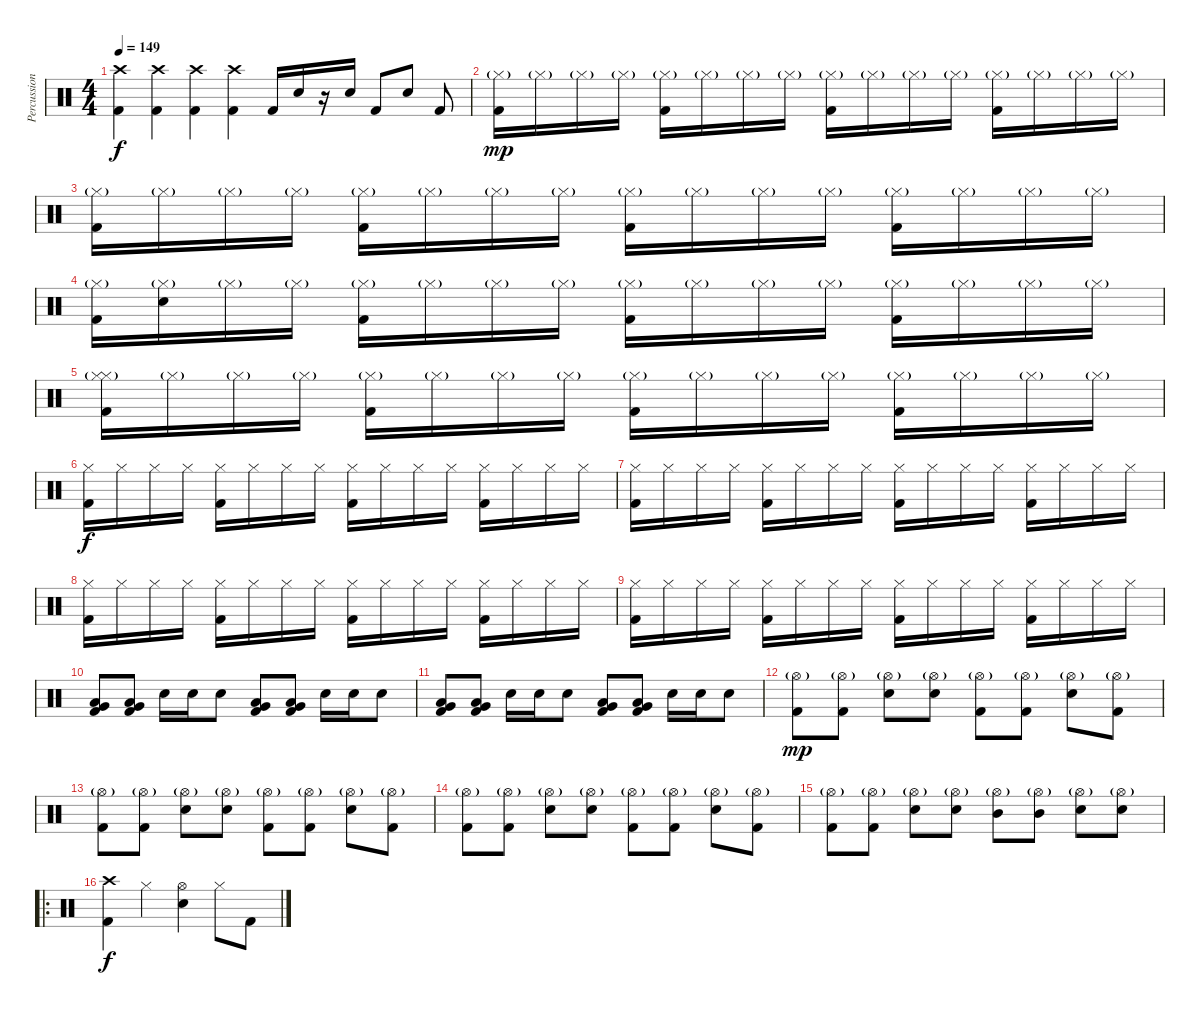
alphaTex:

\track ("Percussion" "Percussion") {instrument percussion}
\staff {score}
\articulation defaults
\ts (4 4)
\tempo 149
\clef neutral
\ks c
("Kick (hit) 2" "Crash high (hit)").4{dy f} ("Kick (hit) 2" "Crash high (hit)").4 ("Kick (hit) 2" "Crash high (hit)").4 ("Kick (hit) 2" "Crash high (hit)").4 "Kick (hit) 2".16 "Electric Snare (hit)".16 r.16 "Electric Snare (hit)".16 "Kick (hit) 2".8 "Electric Snare (hit)".8 "Kick (hit) 2".8 |
("Hi-Hat (closed)"{g} "Kick (hit) 2").16{dy mp} "Hi-Hat (closed)"{g}.16 "Hi-Hat (closed)"{g}.16 "Hi-Hat (closed)"{g}.16 ("Hi-Hat (closed)"{g} "Kick (hit) 2").16 "Hi-Hat (closed)"{g}.16 "Hi-Hat (closed)"{g}.16 "Hi-Hat (closed)"{g}.16 ("Hi-Hat (closed)"{g} "Kick (hit) 2").16 "Hi-Hat (closed)"{g}.16 "Hi-Hat (closed)"{g}.16 "Hi-Hat (closed)"{g}.16 ("Hi-Hat (closed)"{g} "Kick (hit) 2").16 "Hi-Hat (closed)"{g}.16 "Hi-Hat (closed)"{g}.16 "Hi-Hat (closed)"{g}.16 |
("Hi-Hat (closed)"{g} "Kick (hit) 2").16 "Hi-Hat (closed)"{g}.16 "Hi-Hat (closed)"{g}.16 "Hi-Hat (closed)"{g}.16 ("Hi-Hat (closed)"{g} "Kick (hit) 2").16 "Hi-Hat (closed)"{g}.16 "Hi-Hat (closed)"{g}.16 "Hi-Hat (closed)"{g}.16 ("Hi-Hat (closed)"{g} "Kick (hit) 2").16 "Hi-Hat (closed)"{g}.16 "Hi-Hat (closed)"{g}.16 "Hi-Hat (closed)"{g}.16 ("Hi-Hat (closed)"{g} "Kick (hit) 2").16 "Hi-Hat (closed)"{g}.16 "Hi-Hat (closed)"{g}.16 "Hi-Hat (closed)"{g}.16 |
("Hi-Hat (closed)"{g} "Kick (hit) 2").16 ("Hi-Hat (closed)"{g} "Snare (hit)").16 "Hi-Hat (closed)"{g}.16 "Hi-Hat (closed)"{g}.16 ("Hi-Hat (closed)"{g} "Kick (hit) 2").16 "Hi-Hat (closed)"{g}.16 "Hi-Hat (closed)"{g}.16 "Hi-Hat (closed)"{g}.16 ("Hi-Hat (closed)"{g} "Kick (hit) 2").16 "Hi-Hat (closed)"{g}.16 "Hi-Hat (closed)"{g}.16 "Hi-Hat (closed)"{g}.16 ("Hi-Hat (closed)"{g} "Kick (hit) 2").16 "Hi-Hat (closed)"{g}.16 "Hi-Hat (closed)"{g}.16 "Hi-Hat (closed)"{g}.16 |
("Hi-Hat (closed)" "Hi-Hat (closed)"{g} "Kick (hit) 2").16 "Hi-Hat (closed)"{g}.16 "Hi-Hat (closed)"{g}.16 "Hi-Hat (closed)"{g}.16 ("Hi-Hat (closed)"{g} "Kick (hit) 2").16 "Hi-Hat (closed)"{g}.16 "Hi-Hat (closed)"{g}.16 "Hi-Hat (closed)"{g}.16 ("Hi-Hat (closed)"{g} "Kick (hit) 2").16 "Hi-Hat (closed)"{g}.16 "Hi-Hat (closed)"{g}.16 "Hi-Hat (closed)"{g}.16 ("Hi-Hat (closed)"{g} "Kick (hit) 2").16 "Hi-Hat (closed)"{g}.16 "Hi-Hat (closed)"{g}.16 "Hi-Hat (closed)"{g}.16 |
("Hi-Hat (closed)" "Kick (hit) 2").16{dy f} "Hi-Hat (closed)".16 "Hi-Hat (closed)".16 "Hi-Hat (closed)".16 ("Hi-Hat (closed)" "Kick (hit) 2").16 "Hi-Hat (closed)".16 "Hi-Hat (closed)".16 "Hi-Hat (closed)".16 ("Hi-Hat (closed)" "Kick (hit) 2").16 "Hi-Hat (closed)".16 "Hi-Hat (closed)".16 "Hi-Hat (closed)".16 ("Hi-Hat (closed)" "Kick (hit) 2").16 "Hi-Hat (closed)".16 "Hi-Hat (closed)".16 "Hi-Hat (closed)".16 |
("Hi-Hat (closed)" "Kick (hit) 2").16 "Hi-Hat (closed)".16 "Hi-Hat (closed)".16 "Hi-Hat (closed)".16 ("Hi-Hat (closed)" "Kick (hit) 2").16 "Hi-Hat (closed)".16 "Hi-Hat (closed)".16 "Hi-Hat (closed)".16 ("Hi-Hat (closed)" "Kick (hit) 2").16 "Hi-Hat (closed)".16 "Hi-Hat (closed)".16 "Hi-Hat (closed)".16 ("Hi-Hat (closed)" "Kick (hit) 2").16 "Hi-Hat (closed)".16 "Hi-Hat (closed)".16 "Hi-Hat (closed)".16 |
("Hi-Hat (closed)" "Kick (hit) 2").16 "Hi-Hat (closed)".16 "Hi-Hat (closed)".16 "Hi-Hat (closed)".16 ("Hi-Hat (closed)" "Kick (hit) 2").16 "Hi-Hat (closed)".16 "Hi-Hat (closed)".16 "Hi-Hat (closed)".16 ("Hi-Hat (closed)" "Kick (hit) 2").16 "Hi-Hat (closed)".16 "Hi-Hat (closed)".16 "Hi-Hat (closed)".16 ("Hi-Hat (closed)" "Kick (hit) 2").16 "Hi-Hat (closed)".16 "Hi-Hat (closed)".16 "Hi-Hat (closed)".16 |
("Hi-Hat (closed)" "Kick (hit) 2").16 "Hi-Hat (closed)".16 "Hi-Hat (closed)".16 "Hi-Hat (closed)".16 ("Hi-Hat (closed)" "Kick (hit) 2").16 "Hi-Hat (closed)".16 "Hi-Hat (closed)".16 "Hi-Hat (closed)".16 ("Hi-Hat (closed)" "Kick (hit) 2").16 "Hi-Hat (closed)".16 "Hi-Hat (closed)".16 "Hi-Hat (closed)".16 ("Hi-Hat (closed)" "Kick (hit) 2").16 "Hi-Hat (closed)".16 "Hi-Hat (closed)".16 "Hi-Hat (closed)".16 |
("Kick (hit) 2" "Low Floor Tom (hit)" "Very Low Tom (hit)").8 ("Kick (hit) 2" "Low Floor Tom (hit)" "Very Low Tom (hit)").8 "Electric Snare (hit)".16 "Electric Snare (hit)".16 "Electric Snare (hit)".8 ("Kick (hit) 2" "Low Floor Tom (hit)" "Very Low Tom (hit)").8 ("Kick (hit) 2" "Low Floor Tom (hit)" "Very Low Tom (hit)").8 "Electric Snare (hit)".16 "Electric Snare (hit)".16 "Electric Snare (hit)".8 |
("Kick (hit) 2" "Low Floor Tom (hit)" "Very Low Tom (hit)").8 ("Kick (hit) 2" "Low Floor Tom (hit)" "Very Low Tom (hit)").8 "Electric Snare (hit)".16 "Electric Snare (hit)".16 "Electric Snare (hit)".8 ("Kick (hit) 2" "Low Floor Tom (hit)" "Very Low Tom (hit)").8 ("Kick (hit) 2" "Low Floor Tom (hit)" "Very Low Tom (hit)").8 "Electric Snare (hit)".16 "Electric Snare (hit)".16 "Electric Snare (hit)".8 |
("Hi-Hat (open)"{g} "Kick (hit) 2").8{dy mp} ("Hi-Hat (open)"{g} "Kick (hit) 2").8 ("Hi-Hat (open)"{g} "Electric Snare (hit)").8 ("Hi-Hat (open)"{g} "Electric Snare (hit)").8 ("Hi-Hat (open)"{g} "Kick (hit) 2").8 ("Hi-Hat (open)"{g} "Kick (hit) 2").8 ("Hi-Hat (open)"{g} "Electric Snare (hit)").8 ("Hi-Hat (open)"{g} "Kick (hit) 2").8 |
("Hi-Hat (open)"{g} "Kick (hit) 2").8 ("Hi-Hat (open)"{g} "Kick (hit) 2").8 ("Hi-Hat (open)"{g} "Electric Snare (hit)").8 ("Hi-Hat (open)"{g} "Electric Snare (hit)").8 ("Hi-Hat (open)"{g} "Kick (hit) 2").8 ("Hi-Hat (open)"{g} "Kick (hit) 2").8 ("Hi-Hat (open)"{g} "Electric Snare (hit)").8 ("Hi-Hat (open)"{g} "Kick (hit) 2").8 |
("Hi-Hat (open)"{g} "Kick (hit) 2").8 ("Hi-Hat (open)"{g} "Kick (hit) 2").8 ("Hi-Hat (open)"{g} "Electric Snare (hit)").8 ("Hi-Hat (open)"{g} "Electric Snare (hit)").8 ("Hi-Hat (open)"{g} "Kick (hit) 2").8 ("Hi-Hat (open)"{g} "Kick (hit) 2").8 ("Hi-Hat (open)"{g} "Electric Snare (hit)").8 ("Hi-Hat (open)"{g} "Kick (hit) 2").8 |
("Hi-Hat (open)"{g} "Kick (hit) 2").8 ("Hi-Hat (open)"{g} "Kick (hit) 2").8 ("Hi-Hat (open)"{g} "Electric Snare (hit)").8 ("Hi-Hat (open)"{g} "Electric Snare (hit)").8 ("Hi-Hat (open)"{g} "Mid Tom (hit)").8 ("Hi-Hat (open)"{g} "Mid Tom (hit)").8 ("Hi-Hat (open)"{g} "Electric Snare (hit)").8 ("Hi-Hat (open)"{g} "Electric Snare (hit)").8 |
\ro
("Crash high (hit)" "Kick (hit) 2").4{dy f} "Hi-Hat (closed)".4 ("Hi-Hat (open)" "Electric Snare (hit)").4 "Hi-Hat (closed)".8 "Kick (hit) 2".8
